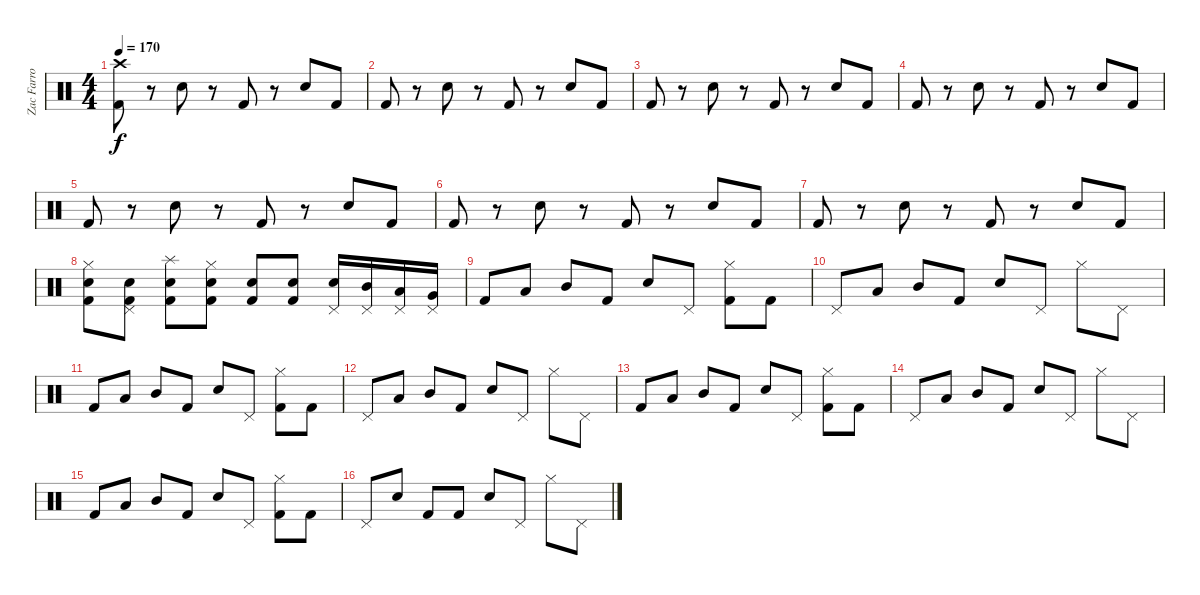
\track ("Zac Farro Drums" "Zac Farro ") {instrument percussion}
\staff {score}
\articulation defaults
\ts (4 4)
\tempo 170
\clef neutral
\ks c
("Crash high (hit)" "Kick (hit) 2").8{dy f} r.8 "Electric Snare (hit)".8 r.8 "Kick (hit) 2".8 r.8 "Electric Snare (hit)".8 "Kick (hit) 2".8 |
"Kick (hit) 2".8 r.8 "Electric Snare (hit)".8 r.8 "Kick (hit) 2".8 r.8 "Electric Snare (hit)".8 "Kick (hit) 2".8 |
"Kick (hit) 2".8 r.8 "Electric Snare (hit)".8 r.8 "Kick (hit) 2".8 r.8 "Electric Snare (hit)".8 "Kick (hit) 2".8 |
"Kick (hit) 2".8 r.8 "Electric Snare (hit)".8 r.8 "Kick (hit) 2".8 r.8 "Electric Snare (hit)".8 "Kick (hit) 2".8 |
"Kick (hit) 2".8 r.8 "Electric Snare (hit)".8 r.8 "Kick (hit) 2".8 r.8 "Electric Snare (hit)".8 "Kick (hit) 2".8 |
"Kick (hit) 2".8 r.8 "Electric Snare (hit)".8 r.8 "Kick (hit) 2".8 r.8 "Electric Snare (hit)".8 "Kick (hit) 2".8 |
"Kick (hit) 2".8 r.8 "Electric Snare (hit)".8 r.8 "Kick (hit) 2".8 r.8 "Electric Snare (hit)".8 "Kick (hit) 2".8 |
("Hi-Hat (closed)" "Electric Snare (hit)" "Kick (hit) 2").8 ("Pedal Hi-Hat (hit)" "Electric Snare (hit)" "Kick (hit) 2").8 ("Splash (hit)" "Electric Snare (hit)" "Kick (hit) 2").8 ("Hi-Hat (closed)" "Electric Snare (hit)" "Kick (hit) 2").8 ("Electric Snare (hit)" "Kick (hit) 2").8 ("Electric Snare (hit)" "Kick (hit) 2").8 ("Pedal Hi-Hat (hit)" "Electric Snare (hit)").16 ("Pedal Hi-Hat (hit)" "Mid Tom (hit)").16 ("Pedal Hi-Hat (hit)" "Low Tom (hit)").16 ("Pedal Hi-Hat (hit)" "Very Low Tom (hit)").16 |
"Kick (hit) 2".8 "Low Tom (hit)".8 "Mid Tom (hit)".8 "Kick (hit) 2".8 "Electric Snare (hit)".8 "Pedal Hi-Hat (hit)".8 ("Hi-Hat (closed)" "Kick (hit) 2").8 "Kick (hit) 2".8 |
"Pedal Hi-Hat (hit)".8 "Low Tom (hit)".8 "Mid Tom (hit)".8 "Kick (hit) 2".8 "Electric Snare (hit)".8 "Pedal Hi-Hat (hit)".8 "Hi-Hat (closed)".8 "Pedal Hi-Hat (hit)".8 |
"Kick (hit) 2".8 "Low Tom (hit)".8 "Mid Tom (hit)".8 "Kick (hit) 2".8 "Electric Snare (hit)".8 "Pedal Hi-Hat (hit)".8 ("Hi-Hat (closed)" "Kick (hit) 2").8 "Kick (hit) 2".8 |
"Pedal Hi-Hat (hit)".8 "Low Tom (hit)".8 "Mid Tom (hit)".8 "Kick (hit) 2".8 "Electric Snare (hit)".8 "Pedal Hi-Hat (hit)".8 "Hi-Hat (closed)".8 "Pedal Hi-Hat (hit)".8 |
"Kick (hit) 2".8 "Low Tom (hit)".8 "Mid Tom (hit)".8 "Kick (hit) 2".8 "Electric Snare (hit)".8 "Pedal Hi-Hat (hit)".8 ("Hi-Hat (closed)" "Kick (hit) 2").8 "Kick (hit) 2".8 |
"Pedal Hi-Hat (hit)".8 "Low Tom (hit)".8 "Mid Tom (hit)".8 "Kick (hit) 2".8 "Electric Snare (hit)".8 "Pedal Hi-Hat (hit)".8 "Hi-Hat (closed)".8 "Pedal Hi-Hat (hit)".8 |
"Kick (hit) 2".8 "Low Tom (hit)".8 "Mid Tom (hit)".8 "Kick (hit) 2".8 "Electric Snare (hit)".8 "Pedal Hi-Hat (hit)".8 ("Hi-Hat (closed)" "Kick (hit) 2").8 "Kick (hit) 2".8 |
"Pedal Hi-Hat (hit)".8 "Electric Snare (hit)".8 "Kick (hit) 2".8 "Kick (hit) 2".8 "Electric Snare (hit)".8 "Pedal Hi-Hat (hit)".8 "Hi-Hat (closed)".8 "Pedal Hi-Hat (hit)".8
